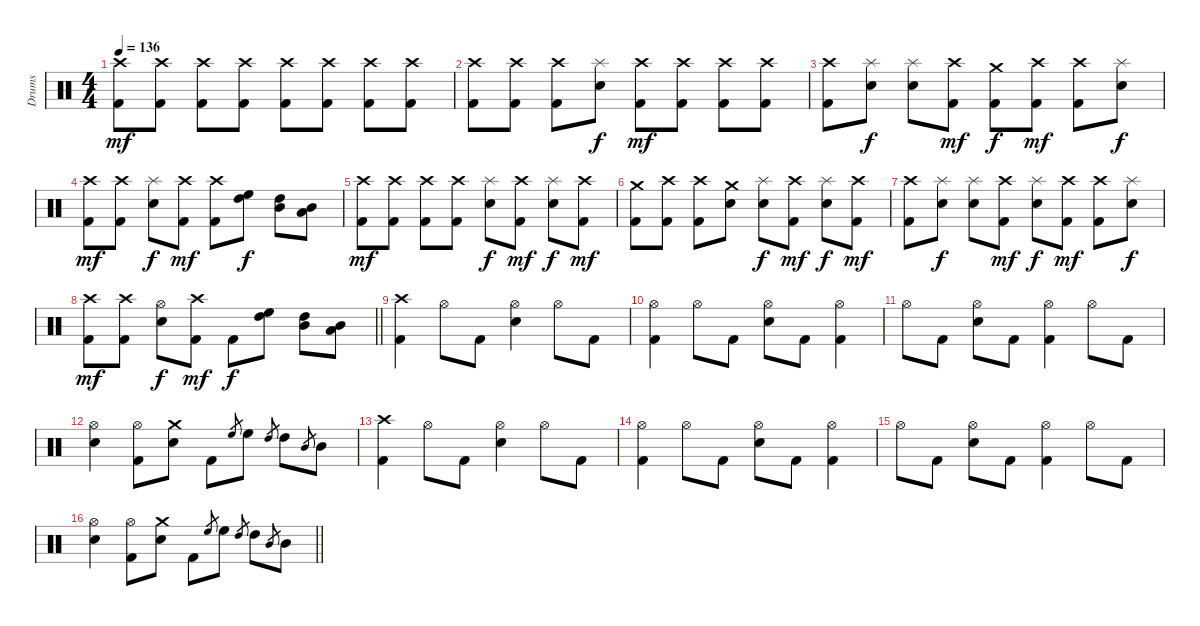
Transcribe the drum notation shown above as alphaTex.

\track ("Drums" "Drums") {instrument percussion}
\staff {score}
\articulation defaults
\ts (4 4)
\tempo 136
\clef neutral
\ks c
("Crash high (hit)" "Kick (hit) 2").8{dy mf} ("Crash high (hit)" "Kick (hit) 2").8 ("Crash high (hit)" "Kick (hit) 2").8 ("Crash high (hit)" "Kick (hit) 2").8 ("Crash high (hit)" "Kick (hit) 2").8 ("Crash high (hit)" "Kick (hit) 2").8 ("Crash high (hit)" "Kick (hit) 2").8 ("Crash high (hit)" "Kick (hit) 2").8 |
("Crash high (hit)" "Kick (hit) 2").8 ("Crash high (hit)" "Kick (hit) 2").8 ("Crash high (hit)" "Kick (hit) 2").8 ("Splash (hit)" "Electric Snare (hit)").8{dy f} ("Crash high (hit)" "Kick (hit) 2").8{dy mf} ("Crash high (hit)" "Kick (hit) 2").8 ("Crash high (hit)" "Kick (hit) 2").8 ("Crash high (hit)" "Kick (hit) 2").8 |
("Crash high (hit)" "Kick (hit) 2").8 ("Splash (hit)" "Electric Snare (hit)").8{dy f} ("Splash (hit)" "Electric Snare (hit)").8 ("Crash high (hit)" "Kick (hit) 2").8{dy mf} ("Crash medium (hit)" "Kick (hit) 2").8{dy f} ("Crash high (hit)" "Kick (hit) 2").8{dy mf} ("Crash high (hit)" "Kick (hit) 2").8 ("Splash (hit)" "Electric Snare (hit)").8{dy f} |
("Crash high (hit)" "Kick (hit) 2").8{dy mf} ("Crash high (hit)" "Kick (hit) 2").8 ("Splash (hit)" "Electric Snare (hit)").8{dy f} ("Crash high (hit)" "Kick (hit) 2").8{dy mf} ("Crash high (hit)" "Kick (hit) 2").8 ("High Floor Tom (hit)" "High Tom (hit)").8{dy f} ("High Tom (hit)" "Mid Tom (hit)").8 ("Mid Tom (hit)" "Low Tom (hit)").8 |
("Crash high (hit)" "Kick (hit) 2").8{dy mf} ("Crash high (hit)" "Kick (hit) 2").8 ("Crash high (hit)" "Kick (hit) 2").8 ("Crash high (hit)" "Kick (hit) 2").8 ("Splash (hit)" "Electric Snare (hit)").8{dy f} ("Crash high (hit)" "Kick (hit) 2").8{dy mf} ("Splash (hit)" "Electric Snare (hit)").8{dy f} ("Crash high (hit)" "Kick (hit) 2").8{dy mf} |
("Crash medium (hit)" "Kick (hit) 2").8 ("Crash high (hit)" "Kick (hit) 2").8 ("Crash high (hit)" "Kick (hit) 2").8 ("Crash medium (hit)" "Electric Snare (hit)").8 ("Splash (hit)" "Electric Snare (hit)").8{dy f} ("Crash high (hit)" "Kick (hit) 2").8{dy mf} ("Splash (hit)" "Electric Snare (hit)").8{dy f} ("Crash high (hit)" "Kick (hit) 2").8{dy mf} |
("Crash high (hit)" "Kick (hit) 2").8 ("Splash (hit)" "Electric Snare (hit)").8{dy f} ("Splash (hit)" "Electric Snare (hit)").8 ("Crash high (hit)" "Kick (hit) 2").8{dy mf} ("Splash (hit)" "Electric Snare (hit)").8{dy f} ("Crash high (hit)" "Kick (hit) 2").8{dy mf} ("Crash high (hit)" "Kick (hit) 2").8 ("Splash (hit)" "Electric Snare (hit)").8{dy f} |
\barLineRight lightlight
("Crash high (hit)" "Kick (hit) 2").8{dy mf} ("Crash high (hit)" "Kick (hit) 2").8 ("Hi-Hat (open)" "Electric Snare (hit)").8{dy f} ("Crash high (hit)" "Kick (hit) 2").8{dy mf} "Kick (hit) 2".8{dy f} ("High Floor Tom (hit)" "High Tom (hit)").8 ("High Tom (hit)" "Mid Tom (hit)").8 ("Mid Tom (hit)" "Low Tom (hit)").8 |
("Crash high (hit)" "Kick (hit) 2").4 "Hi-Hat (open)".8 "Kick (hit) 2".8 ("Hi-Hat (open)" "Electric Snare (hit)").4 "Hi-Hat (open)".8 "Kick (hit) 2".8 |
("Hi-Hat (open)" "Kick (hit) 2").4 "Hi-Hat (open)".8 "Kick (hit) 2".8 ("Hi-Hat (open)" "Electric Snare (hit)").8 "Kick (hit) 2".8 ("Hi-Hat (open)" "Kick (hit) 2").4 |
"Hi-Hat (open)".8 "Kick (hit) 2".8 ("Hi-Hat (open)" "Electric Snare (hit)").8 "Kick (hit) 2".8 ("Hi-Hat (open)" "Kick (hit) 2").4 "Hi-Hat (open)".8 "Kick (hit) 2".8 |
("Hi-Hat (open)" "Electric Snare (hit)").4 ("Hi-Hat (open)" "Kick (hit) 2").8 ("Crash medium (hit)" "Electric Snare (hit)").8 "Kick (hit) 2".8 "High Floor Tom (hit)".8{gr} "High Floor Tom (hit)".8 "High Tom (hit)".8{gr} "High Tom (hit)".8 "Mid Tom (hit)".8{gr} "Mid Tom (hit)".8 |
("Crash high (hit)" "Kick (hit) 2").4 "Hi-Hat (open)".8 "Kick (hit) 2".8 ("Hi-Hat (open)" "Electric Snare (hit)").4 "Hi-Hat (open)".8 "Kick (hit) 2".8 |
("Hi-Hat (open)" "Kick (hit) 2").4 "Hi-Hat (open)".8 "Kick (hit) 2".8 ("Hi-Hat (open)" "Electric Snare (hit)").8 "Kick (hit) 2".8 ("Hi-Hat (open)" "Kick (hit) 2").4 |
"Hi-Hat (open)".8 "Kick (hit) 2".8 ("Hi-Hat (open)" "Electric Snare (hit)").8 "Kick (hit) 2".8 ("Hi-Hat (open)" "Kick (hit) 2").4 "Hi-Hat (open)".8 "Kick (hit) 2".8 |
\barLineRight lightlight
("Hi-Hat (open)" "Electric Snare (hit)").4 ("Hi-Hat (open)" "Kick (hit) 2").8 ("Crash medium (hit)" "Electric Snare (hit)").8 "Kick (hit) 2".8 "High Floor Tom (hit)".8{gr} "High Floor Tom (hit)".8 "High Tom (hit)".8{gr} "High Tom (hit)".8 "Mid Tom (hit)".8{gr} "Mid Tom (hit)".8
